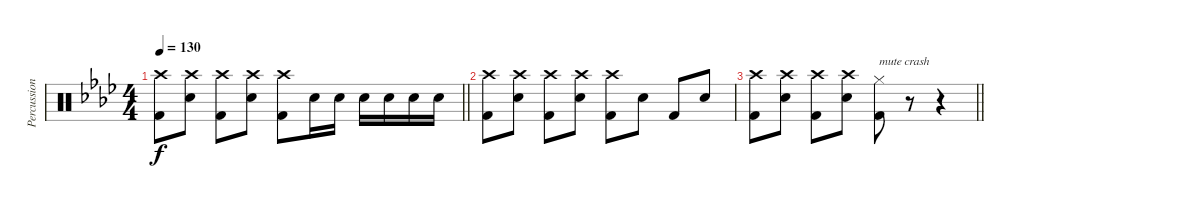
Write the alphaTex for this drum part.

\track ("Percussion" "Percussion") {instrument percussion}
\staff {score}
\articulation defaults
\ts (4 4)
\tempo 130
\clef neutral
\barLineRight lightlight
\ks ab
("Crash high (hit)" "Kick (hit) 2").8{dy f} ("Crash high (hit)" "Electric Snare (hit)").8 ("Crash high (hit)" "Kick (hit) 2").8 ("Crash high (hit)" "Electric Snare (hit)").8 ("Crash high (hit)" "Kick (hit) 2").8 "Electric Snare (hit)".16 "Electric Snare (hit)".16 "Electric Snare (hit)".16 "Electric Snare (hit)".16 "Electric Snare (hit)".16 "Electric Snare (hit)".16 |
("Crash high (hit)" "Kick (hit) 2").8 ("Crash high (hit)" "Electric Snare (hit)").8 ("Crash high (hit)" "Kick (hit) 2").8 ("Crash high (hit)" "Electric Snare (hit)").8 ("Crash high (hit)" "Kick (hit) 2").8 "Electric Snare (hit)".8 "Kick (hit) 2".8 "Electric Snare (hit)".8 |
\barLineRight lightlight
("Crash high (hit)" "Kick (hit) 2").8 ("Crash high (hit)" "Electric Snare (hit)").8 ("Crash high (hit)" "Kick (hit) 2").8 ("Crash high (hit)" "Electric Snare (hit)").8 ("Hi-Hat (closed)" "Kick (hit) 2").8{txt "mute crash"} r.8 r.4
